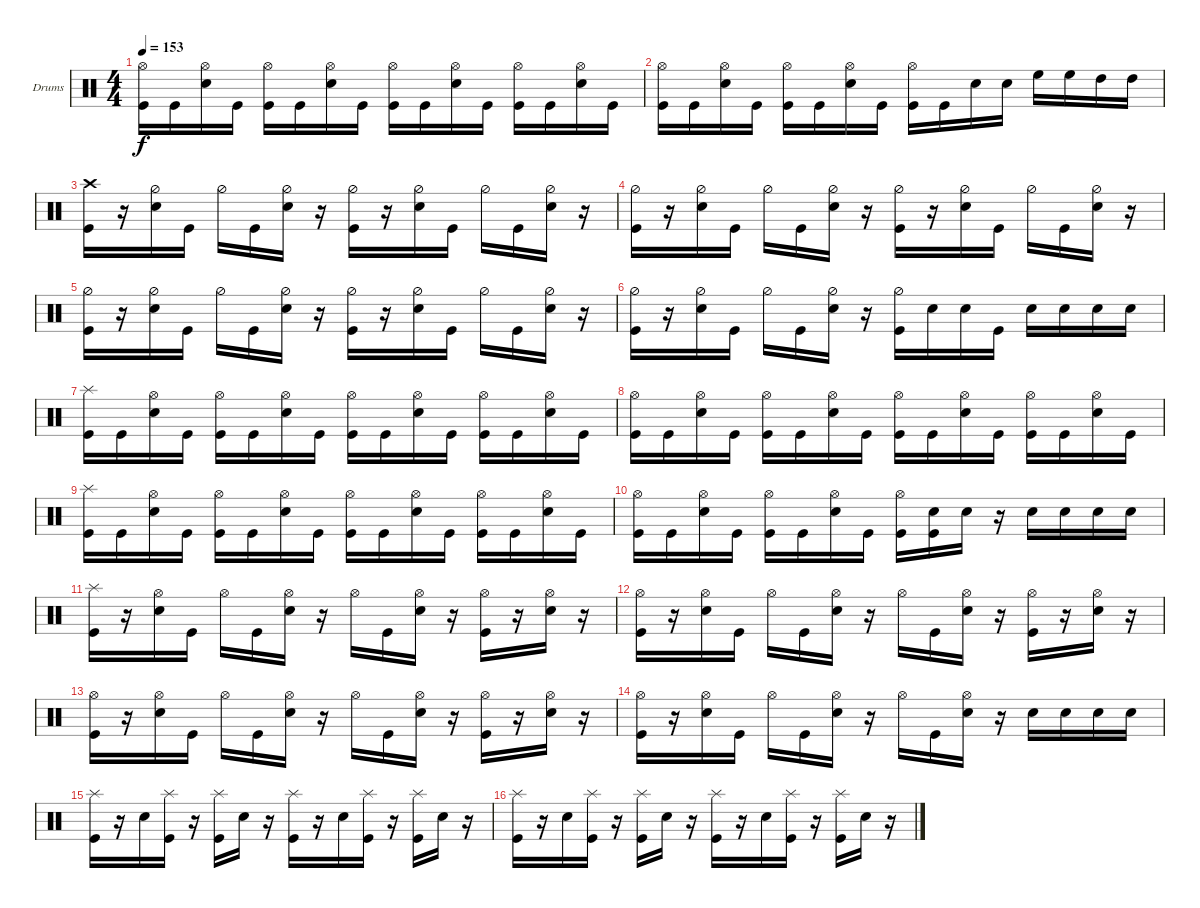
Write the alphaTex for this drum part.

\bracketExtendMode groupsimilarinstruments
\firstSystemTrackNameOrientation horizontal
\otherSystemsTrackNameOrientation horizontal
\track ("Drumkit" "Drums") {instrument percussion}
\staff {score}
\articulation defaults
\ts (4 4)
\tempo 153
\clef neutral
\ks c
("Kick (hit)" "Hi-Hat (open)").16{dy f} "Kick (hit)".16 ("Snare (hit) 2" "Hi-Hat (open)").16 "Kick (hit)".16 ("Kick (hit)" "Hi-Hat (open)").16 "Kick (hit)".16 ("Snare (hit) 2" "Hi-Hat (open)").16 "Kick (hit)".16 ("Kick (hit)" "Hi-Hat (open)").16 "Kick (hit)".16 ("Snare (hit) 2" "Hi-Hat (open)").16 "Kick (hit)".16 ("Kick (hit)" "Hi-Hat (open)").16 "Kick (hit)".16 ("Snare (hit) 2" "Hi-Hat (open)").16 "Kick (hit)".16 |
("Kick (hit)" "Hi-Hat (open)").16 "Kick (hit)".16 ("Snare (hit) 2" "Hi-Hat (open)").16 "Kick (hit)".16 ("Kick (hit)" "Hi-Hat (open)").16 "Kick (hit)".16 ("Snare (hit) 2" "Hi-Hat (open)").16 "Kick (hit)".16 ("Kick (hit)" "Hi-Hat (open)").16 "Kick (hit)".16 "Snare (hit) 2".16 "Snare (hit) 2".16 "High Floor Tom (hit)".16 "High Floor Tom (hit)".16 "High Tom (hit)".16 "High Tom (hit)".16 |
("Kick (hit)" "Crash high (hit)").16 r.16 ("Snare (hit) 2" "Hi-Hat (half)").16 "Kick (hit)".16 "Hi-Hat (half)".16 "Kick (hit)".16 ("Snare (hit) 2" "Hi-Hat (half)").16 r.16 ("Kick (hit)" "Hi-Hat (half)").16 r.16 ("Snare (hit) 2" "Hi-Hat (half)").16 "Kick (hit)".16 "Hi-Hat (half)".16 "Kick (hit)".16 ("Snare (hit) 2" "Hi-Hat (half)").16 r.16 |
("Kick (hit)" "Hi-Hat (half)").16 r.16 ("Snare (hit) 2" "Hi-Hat (half)").16 "Kick (hit)".16 "Hi-Hat (half)".16 "Kick (hit)".16 ("Snare (hit) 2" "Hi-Hat (half)").16 r.16 ("Kick (hit)" "Hi-Hat (half)").16 r.16 ("Snare (hit) 2" "Hi-Hat (half)").16 "Kick (hit)".16 "Hi-Hat (half)".16 "Kick (hit)".16 ("Snare (hit) 2" "Hi-Hat (half)").16 r.16 |
("Kick (hit)" "Hi-Hat (half)").16 r.16 ("Snare (hit) 2" "Hi-Hat (half)").16 "Kick (hit)".16 "Hi-Hat (half)".16 "Kick (hit)".16 ("Snare (hit) 2" "Hi-Hat (half)").16 r.16 ("Kick (hit)" "Hi-Hat (half)").16 r.16 ("Snare (hit) 2" "Hi-Hat (half)").16 "Kick (hit)".16 "Hi-Hat (half)".16 "Kick (hit)".16 ("Snare (hit) 2" "Hi-Hat (half)").16 r.16 |
("Kick (hit)" "Hi-Hat (half)").16 r.16 ("Snare (hit) 2" "Hi-Hat (half)").16 "Kick (hit)".16 "Hi-Hat (half)".16 "Kick (hit)".16 ("Snare (hit) 2" "Hi-Hat (half)").16 r.16 ("Kick (hit)" "Hi-Hat (half)").16 "Snare (hit) 2".16 "Snare (hit) 2".16 "Kick (hit)".16 "Snare (hit) 2".16 "Snare (hit) 2".16 "Snare (hit) 2".16 "Snare (hit) 2".16 |
("Kick (hit)" "Splash (hit)").16 "Kick (hit)".16 ("Snare (hit) 2" "Hi-Hat (open)").16 "Kick (hit)".16 ("Kick (hit)" "Hi-Hat (open)").16 "Kick (hit)".16 ("Snare (hit) 2" "Hi-Hat (open)").16 "Kick (hit)".16 ("Kick (hit)" "Hi-Hat (open)").16 "Kick (hit)".16 ("Snare (hit) 2" "Hi-Hat (open)").16 "Kick (hit)".16 ("Kick (hit)" "Hi-Hat (open)").16 "Kick (hit)".16 ("Snare (hit) 2" "Hi-Hat (open)").16 "Kick (hit)".16 |
("Kick (hit)" "Hi-Hat (open)").16 "Kick (hit)".16 ("Snare (hit) 2" "Hi-Hat (open)").16 "Kick (hit)".16 ("Kick (hit)" "Hi-Hat (open)").16 "Kick (hit)".16 ("Snare (hit) 2" "Hi-Hat (open)").16 "Kick (hit)".16 ("Kick (hit)" "Hi-Hat (open)").16 "Kick (hit)".16 ("Snare (hit) 2" "Hi-Hat (open)").16 "Kick (hit)".16 ("Kick (hit)" "Hi-Hat (open)").16 "Kick (hit)".16 ("Snare (hit) 2" "Hi-Hat (open)").16 "Kick (hit)".16 |
("Kick (hit)" "Splash (hit)").16 "Kick (hit)".16 ("Snare (hit) 2" "Hi-Hat (open)").16 "Kick (hit)".16 ("Kick (hit)" "Hi-Hat (open)").16 "Kick (hit)".16 ("Snare (hit) 2" "Hi-Hat (open)").16 "Kick (hit)".16 ("Kick (hit)" "Hi-Hat (open)").16 "Kick (hit)".16 ("Snare (hit) 2" "Hi-Hat (open)").16 "Kick (hit)".16 ("Kick (hit)" "Hi-Hat (open)").16 "Kick (hit)".16 ("Snare (hit) 2" "Hi-Hat (open)").16 "Kick (hit)".16 |
("Kick (hit)" "Hi-Hat (open)").16 "Kick (hit)".16 ("Snare (hit) 2" "Hi-Hat (open)").16 "Kick (hit)".16 ("Kick (hit)" "Hi-Hat (open)").16 "Kick (hit)".16 ("Snare (hit) 2" "Hi-Hat (open)").16 "Kick (hit)".16 ("Kick (hit)" "Hi-Hat (open)").16 ("Kick (hit)" "Snare (hit) 2").16 "Snare (hit) 2".16 r.16 "Snare (hit) 2".16 "Snare (hit) 2".16 "Snare (hit) 2".16 "Snare (hit) 2".16 |
("Kick (hit)" "Splash (hit)").16 r.16 ("Snare (hit) 2" "Hi-Hat (open)").16 "Kick (hit)".16 "Hi-Hat (open)".16 "Kick (hit)".16 ("Snare (hit) 2" "Hi-Hat (open)").16 r.16 "Hi-Hat (open)".16 "Kick (hit)".16 ("Snare (hit) 2" "Hi-Hat (open)").16 r.16 ("Kick (hit)" "Hi-Hat (open)").16 r.16 ("Snare (hit) 2" "Hi-Hat (open)").16 r.16 |
("Kick (hit)" "Hi-Hat (open)").16 r.16 ("Snare (hit) 2" "Hi-Hat (open)").16 "Kick (hit)".16 "Hi-Hat (open)".16 "Kick (hit)".16 ("Snare (hit) 2" "Hi-Hat (open)").16 r.16 "Hi-Hat (open)".16 "Kick (hit)".16 ("Snare (hit) 2" "Hi-Hat (open)").16 r.16 ("Kick (hit)" "Hi-Hat (open)").16 r.16 ("Snare (hit) 2" "Hi-Hat (open)").16 r.16 |
("Kick (hit)" "Hi-Hat (open)").16 r.16 ("Snare (hit) 2" "Hi-Hat (open)").16 "Kick (hit)".16 "Hi-Hat (open)".16 "Kick (hit)".16 ("Snare (hit) 2" "Hi-Hat (open)").16 r.16 "Hi-Hat (open)".16 "Kick (hit)".16 ("Snare (hit) 2" "Hi-Hat (open)").16 r.16 ("Kick (hit)" "Hi-Hat (open)").16 r.16 ("Snare (hit) 2" "Hi-Hat (open)").16 r.16 |
("Kick (hit)" "Hi-Hat (open)").16 r.16 ("Snare (hit) 2" "Hi-Hat (open)").16 "Kick (hit)".16 "Hi-Hat (open)".16 "Kick (hit)".16 ("Snare (hit) 2" "Hi-Hat (open)").16 r.16 "Hi-Hat (open)".16 "Kick (hit)".16 ("Snare (hit) 2" "Hi-Hat (open)").16 r.16 "Snare (hit) 2".16 "Snare (hit) 2".16 "Snare (hit) 2".16 "Snare (hit) 2".16 |
("Kick (hit)" "Splash (hit)").16 r.16 "Snare (hit) 2".16 ("Kick (hit)" "Splash (hit)").16 r.16 ("Kick (hit)" "Splash (hit)").16 "Snare (hit) 2".16 r.16 ("Kick (hit)" "Splash (hit)").16 r.16 "Snare (hit) 2".16 ("Kick (hit)" "Splash (hit)").16 r.16 ("Kick (hit)" "Splash (hit)").16 "Snare (hit) 2".16 r.16 |
("Kick (hit)" "Splash (hit)").16 r.16 "Snare (hit) 2".16 ("Kick (hit)" "Splash (hit)").16 r.16 ("Kick (hit)" "Splash (hit)").16 "Snare (hit) 2".16 r.16 ("Kick (hit)" "Splash (hit)").16 r.16 "Snare (hit) 2".16 ("Kick (hit)" "Splash (hit)").16 r.16 ("Kick (hit)" "Splash (hit)").16 "Snare (hit) 2".16 r.16
